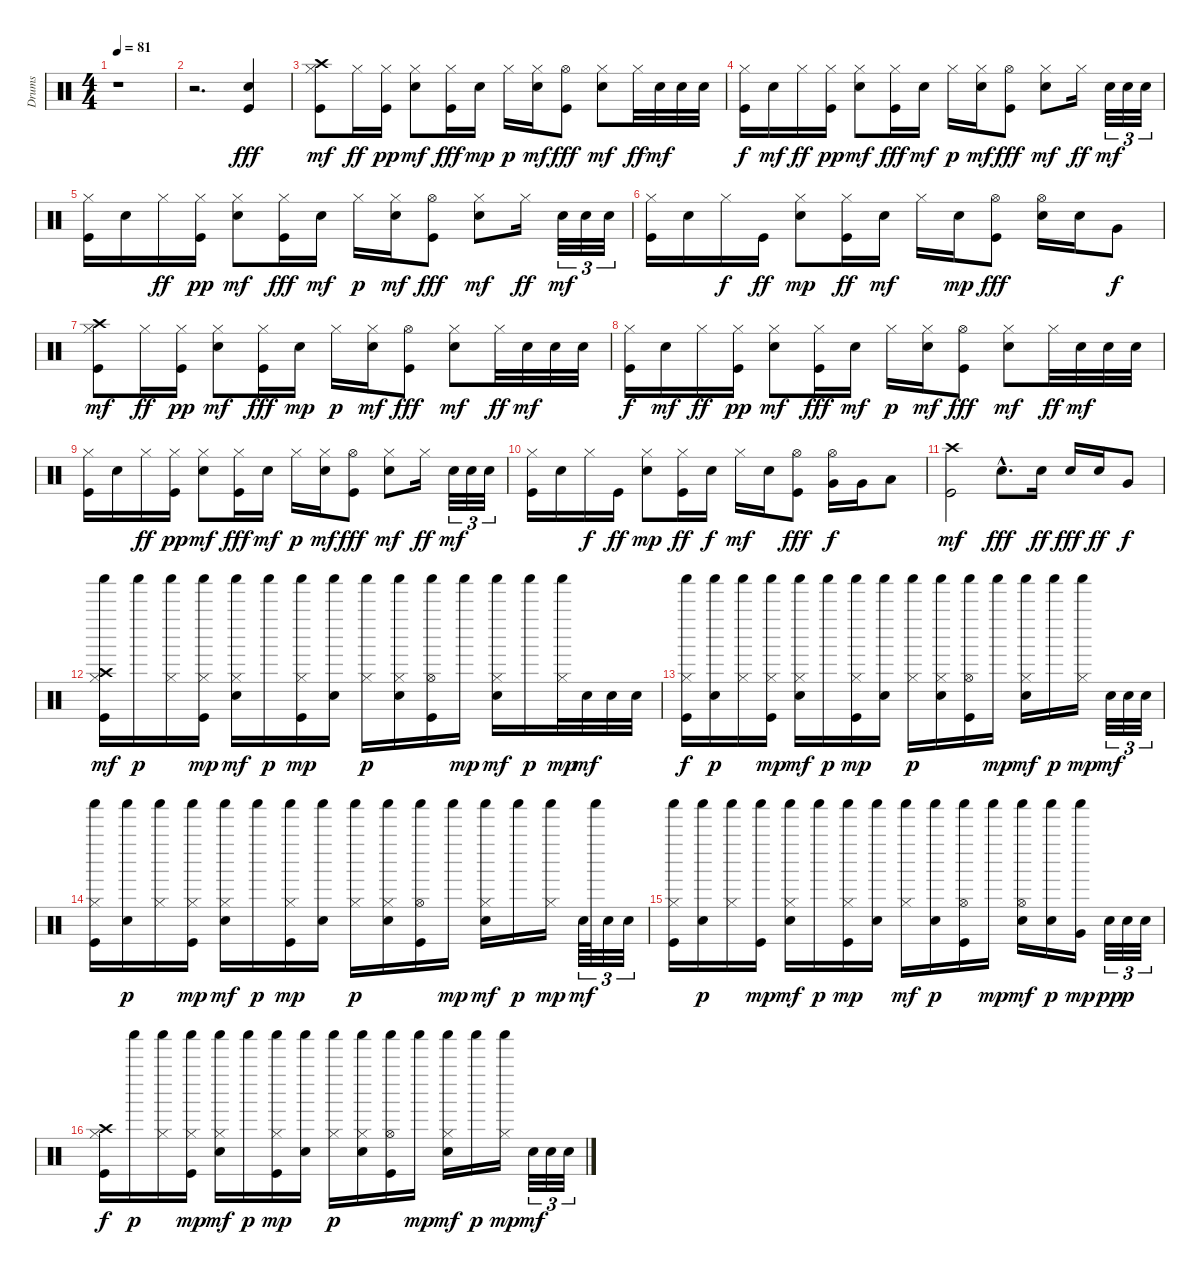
\track ("Drums" "Drums") {instrument percussion}
\staff {score}
\articulation defaults
\ts (4 4)
\tempo 81
\clef neutral
\ks c
r.1{dy mp} |
r.2{d} ("Kick (hit)" "Snare (hit) 2").4{dy fff} |
("Kick (hit)" "Crash high (hit)" "Hi-Hat (closed)").8{dy mf} "Hi-Hat (closed)".16{dy ff} ("Kick (hit)" "Hi-Hat (closed)").16{dy pp} ("Snare (hit) 2" "Hi-Hat (closed)").8{dy mf} ("Kick (hit)" "Hi-Hat (closed)").16{dy fff} "Snare (hit) 2".16{dy mp} "Hi-Hat (closed)".16{dy p} ("Snare (hit) 2" "Hi-Hat (closed)").16{dy mf} ("Kick (hit)" "Hi-Hat (open)").8{dy fff} ("Snare (hit) 2" "Hi-Hat (closed)").8{dy mf} "Hi-Hat (closed)".32{dy ff} "Snare (hit) 2".32{dy mf} "Snare (hit) 2".32 "Snare (hit) 2".32 |
("Kick (hit)" "Hi-Hat (closed)").16{dy f} "Snare (hit) 2".16{dy mf} "Hi-Hat (closed)".16{dy ff} ("Kick (hit)" "Hi-Hat (closed)").16{dy pp} ("Snare (hit) 2" "Hi-Hat (closed)").8{dy mf} ("Kick (hit)" "Hi-Hat (closed)").16{dy fff} "Snare (hit) 2".16{dy mf} "Hi-Hat (closed)".16{dy p} ("Snare (hit) 2" "Hi-Hat (closed)").16{dy mf} ("Kick (hit)" "Hi-Hat (open)").8{dy fff} ("Snare (hit) 2" "Hi-Hat (closed)").8{dy mf} "Hi-Hat (closed)".16{dy ff} "Snare (hit) 2".32{tu (3 2) dy mf} "Snare (hit) 2".32{tu (3 2)} "Snare (hit) 2".32{tu (3 2)} |
("Kick (hit)" "Hi-Hat (closed)").16 "Snare (hit) 2".16 "Hi-Hat (closed)".16{dy ff} ("Kick (hit)" "Hi-Hat (closed)").16{dy pp} ("Snare (hit) 2" "Hi-Hat (closed)").8{dy mf} ("Kick (hit)" "Hi-Hat (closed)").16{dy fff} "Snare (hit) 2".16{dy mf} "Hi-Hat (closed)".16{dy p} ("Snare (hit) 2" "Hi-Hat (closed)").16{dy mf} ("Kick (hit)" "Hi-Hat (open)").8{dy fff} ("Snare (hit) 2" "Hi-Hat (closed)").8{dy mf} "Hi-Hat (closed)".16{dy ff} "Snare (hit) 2".32{tu (3 2) dy mf} "Snare (hit) 2".32{tu (3 2)} "Snare (hit) 2".32{tu (3 2)} |
("Kick (hit)" "Hi-Hat (closed)").16 "Snare (hit) 2".16 "Hi-Hat (closed)".16{dy f} "Kick (hit)".16{dy ff} ("Snare (hit) 2" "Hi-Hat (closed)").8{dy mp} ("Kick (hit)" "Hi-Hat (closed)").16{dy ff} "Snare (hit) 2".16{dy mf} "Hi-Hat (closed)".16 "Snare (hit) 2".16{dy mp} ("Kick (hit)" "Hi-Hat (open)").8{dy fff} ("Snare (hit) 2" "Hi-Hat (open)").16 "Snare (hit) 2".16 "Very Low Tom (hit)".8{dy f} |
("Kick (hit)" "Crash high (hit)" "Hi-Hat (closed)").8{dy mf} "Hi-Hat (closed)".16{dy ff} ("Kick (hit)" "Hi-Hat (closed)").16{dy pp} ("Snare (hit) 2" "Hi-Hat (closed)").8{dy mf} ("Kick (hit)" "Hi-Hat (closed)").16{dy fff} "Snare (hit) 2".16{dy mp} "Hi-Hat (closed)".16{dy p} ("Snare (hit) 2" "Hi-Hat (closed)").16{dy mf} ("Kick (hit)" "Hi-Hat (open)").8{dy fff} ("Snare (hit) 2" "Hi-Hat (closed)").8{dy mf} "Hi-Hat (closed)".32{dy ff} "Snare (hit) 2".32{dy mf} "Snare (hit) 2".32 "Snare (hit) 2".32 |
("Hi-Hat (closed)" "Kick (hit)").16{dy f} "Snare (hit) 2".16{dy mf} "Hi-Hat (closed)".16{dy ff} ("Kick (hit)" "Hi-Hat (closed)").16{dy pp} ("Snare (hit) 2" "Hi-Hat (closed)").8{dy mf} ("Kick (hit)" "Hi-Hat (closed)").16{dy fff} "Snare (hit) 2".16{dy mf} "Hi-Hat (closed)".16{dy p} ("Snare (hit) 2" "Hi-Hat (closed)").16{dy mf} ("Kick (hit)" "Hi-Hat (open)").8{dy fff} ("Snare (hit) 2" "Hi-Hat (closed)").8{dy mf} "Hi-Hat (closed)".32{dy ff} "Snare (hit) 2".32{dy mf} "Snare (hit) 2".32 "Snare (hit) 2".32 |
("Kick (hit)" "Hi-Hat (closed)").16 "Snare (hit) 2".16 "Hi-Hat (closed)".16{dy ff} ("Kick (hit)" "Hi-Hat (closed)").16{dy pp} ("Snare (hit) 2" "Hi-Hat (closed)").8{dy mf} ("Kick (hit)" "Hi-Hat (closed)").16{dy fff} "Snare (hit) 2".16{dy mf} "Hi-Hat (closed)".16{dy p} ("Snare (hit) 2" "Hi-Hat (closed)").16{dy mf} ("Kick (hit)" "Hi-Hat (open)").8{dy fff} ("Snare (hit) 2" "Hi-Hat (closed)").8{dy mf} "Hi-Hat (closed)".16{dy ff} "Snare (hit) 2".32{tu (3 2) dy mf} "Snare (hit) 2".32{tu (3 2)} "Snare (hit) 2".32{tu (3 2)} |
("Kick (hit)" "Hi-Hat (closed)").16 "Snare (hit) 2".16 "Hi-Hat (closed)".16{dy f} "Kick (hit)".16{dy ff} ("Snare (hit) 2" "Hi-Hat (closed)").8{dy mp} ("Kick (hit)" "Hi-Hat (closed)").16{dy ff} "Snare (hit) 2".16{dy f} "Hi-Hat (closed)".16{dy mf} "Snare (hit) 2".16 ("Kick (hit)" "Hi-Hat (open)").8{dy fff} ("Very Low Tom (hit)" "Hi-Hat (open)").16{dy f} "Very Low Tom (hit)".16 "Low Floor Tom (hit)".8 |
("Kick (hit)" "Crash high (hit)").2{dy mf} "Snare (hit) 2"{hac}.8{d dy fff} "Snare (hit) 2".16{dy ff} "Snare (hit) 2".16{dy fff} "Snare (hit) 2".16{dy ff} "Very Low Tom (hit)".8{dy f} |
("Kick (hit)" "Crash high (hit)" "Hi-Hat (closed)" "Shaker (hit)").16{dy mf} "Shaker (hit)".16{dy p} ("Hi-Hat (closed)" "Shaker (hit)").16 ("Kick (hit)" "Hi-Hat (closed)" "Shaker (hit)").16{dy mp} ("Snare (hit) 2" "Hi-Hat (closed)" "Shaker (hit)").16{dy mf} "Shaker (hit)".16{dy p} ("Kick (hit)" "Hi-Hat (closed)" "Shaker (hit)").16{dy mp} ("Snare (hit) 2" "Shaker (hit)").16 ("Hi-Hat (closed)" "Shaker (hit)").16{dy p} ("Snare (hit) 2" "Hi-Hat (closed)" "Shaker (hit)").16 ("Kick (hit)" "Hi-Hat (open)" "Shaker (hit)").16 "Shaker (hit)".16{dy mp} ("Snare (hit) 2" "Hi-Hat (closed)" "Shaker (hit)").16{dy mf} "Shaker (hit)".16{dy p} ("Hi-Hat (closed)" "Shaker (hit)").32{dy mp} "Snare (hit) 2".32{dy mf} "Snare (hit) 2".32 "Snare (hit) 2".32 |
("Kick (hit)" "Hi-Hat (closed)" "Shaker (hit)").16{dy f} ("Snare (hit) 2" "Shaker (hit)").16{dy p} ("Hi-Hat (closed)" "Shaker (hit)").16 ("Kick (hit)" "Hi-Hat (closed)" "Shaker (hit)").16{dy mp} ("Snare (hit) 2" "Hi-Hat (closed)" "Shaker (hit)").16{dy mf} "Shaker (hit)".16{dy p} ("Kick (hit)" "Hi-Hat (closed)" "Shaker (hit)").16{dy mp} ("Snare (hit) 2" "Shaker (hit)").16 ("Hi-Hat (closed)" "Shaker (hit)").16{dy p} ("Snare (hit) 2" "Hi-Hat (closed)" "Shaker (hit)").16 ("Kick (hit)" "Hi-Hat (open)" "Shaker (hit)").16 "Shaker (hit)".16{dy mp} ("Snare (hit) 2" "Hi-Hat (closed)" "Shaker (hit)").16{dy mf} "Shaker (hit)".16{dy p} ("Hi-Hat (closed)" "Shaker (hit)").16{dy mp} "Snare (hit) 2".32{tu (3 2) dy mf} "Snare (hit) 2".32{tu (3 2)} "Snare (hit) 2".32{tu (3 2)} |
("Kick (hit)" "Hi-Hat (closed)" "Shaker (hit)").16 ("Snare (hit) 2" "Shaker (hit)").16{dy p} ("Hi-Hat (closed)" "Shaker (hit)").16 ("Kick (hit)" "Hi-Hat (closed)" "Shaker (hit)").16{dy mp} ("Snare (hit) 2" "Hi-Hat (closed)" "Shaker (hit)").16{dy mf} "Shaker (hit)".16{dy p} ("Kick (hit)" "Hi-Hat (closed)" "Shaker (hit)").16{dy mp} ("Snare (hit) 2" "Shaker (hit)").16 ("Hi-Hat (closed)" "Shaker (hit)").16{dy p} ("Snare (hit) 2" "Hi-Hat (closed)" "Shaker (hit)").16 ("Kick (hit)" "Hi-Hat (open)" "Shaker (hit)").16 "Shaker (hit)".16{dy mp} ("Snare (hit) 2" "Hi-Hat (closed)" "Shaker (hit)").16{dy mf} "Shaker (hit)".16{dy p} ("Hi-Hat (closed)" "Shaker (hit)").16{dy mp} "Snare (hit) 2".64{tu (3 2) dy mf} "Shaker (hit)".64{tu (3 2)} "Snare (hit) 2".32{tu (3 2)} "Snare (hit) 2".32{tu (3 2)} |
("Kick (hit)" "Hi-Hat (closed)" "Shaker (hit)").16 ("Snare (hit) 2" "Shaker (hit)").16{dy p} ("Hi-Hat (closed)" "Shaker (hit)").16 ("Kick (hit)" "Shaker (hit)").16{dy mp} ("Snare (hit) 2" "Hi-Hat (closed)" "Shaker (hit)").16{dy mf} "Shaker (hit)".16{dy p} ("Kick (hit)" "Hi-Hat (closed)" "Shaker (hit)").16{dy mp} ("Snare (hit) 2" "Shaker (hit)").16 ("Hi-Hat (closed)" "Shaker (hit)").16{dy mf} ("Snare (hit) 2" "Shaker (hit)").16{dy p} ("Kick (hit)" "Hi-Hat (open)" "Shaker (hit)").16 "Shaker (hit)".16{dy mp} ("Snare (hit) 2" "Hi-Hat (open)" "Shaker (hit)").16{dy mf} ("Snare (hit) 2" "Shaker (hit)").16{dy p} ("Very Low Tom (hit)" "Shaker (hit)").16{dy mp} "Snare (hit) 2".32{tu (3 2) dy pp} "Snare (hit) 2".32{tu (3 2) dy p} "Snare (hit) 2".32{tu (3 2)} |
("Crash high (hit)" "Hi-Hat (closed)" "Kick (hit)").16{dy f} "Shaker (hit)".16{dy p} ("Hi-Hat (closed)" "Shaker (hit)").16 ("Kick (hit)" "Hi-Hat (closed)" "Shaker (hit)").16{dy mp} ("Snare (hit) 2" "Hi-Hat (closed)" "Shaker (hit)").16{dy mf} "Shaker (hit)".16{dy p} ("Kick (hit)" "Hi-Hat (closed)" "Shaker (hit)").16{dy mp} ("Snare (hit) 2" "Shaker (hit)").16 ("Hi-Hat (closed)" "Shaker (hit)").16{dy p} ("Snare (hit) 2" "Hi-Hat (closed)" "Shaker (hit)").16 ("Kick (hit)" "Hi-Hat (open)" "Shaker (hit)").16 "Shaker (hit)".16{dy mp} ("Snare (hit) 2" "Hi-Hat (closed)" "Shaker (hit)").16{dy mf} "Shaker (hit)".16{dy p} ("Hi-Hat (closed)" "Shaker (hit)").16{dy mp} "Snare (hit) 2".32{tu (3 2) dy mf} "Snare (hit) 2".32{tu (3 2)} "Snare (hit) 2".32{tu (3 2)}
